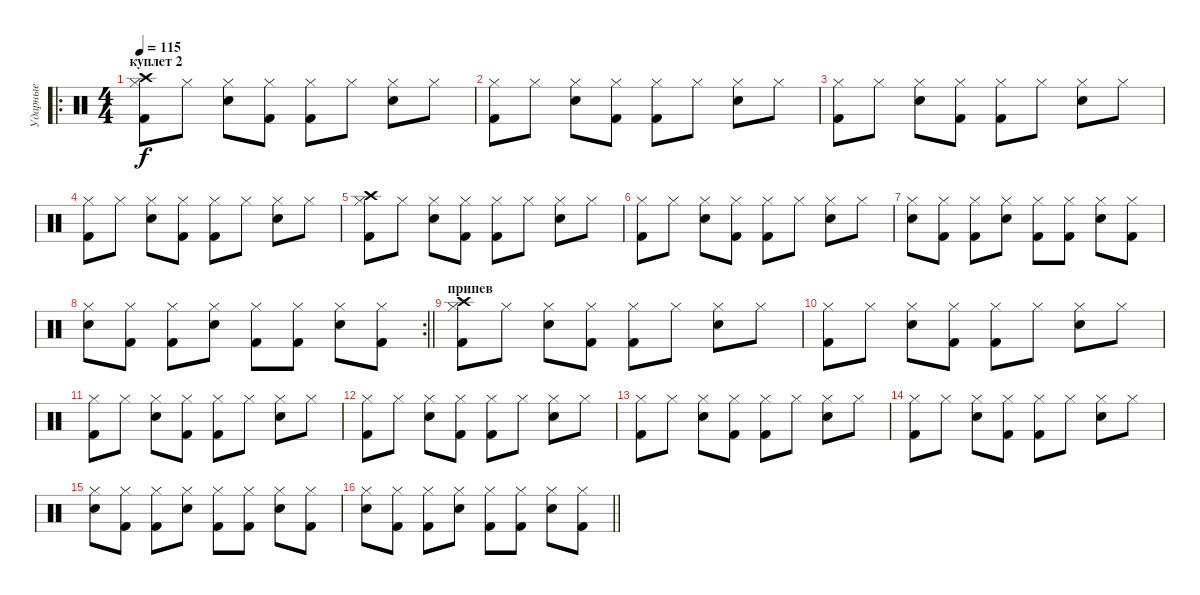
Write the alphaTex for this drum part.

\track ("Ударные" "Ударные") {instrument percussion}
\staff {score}
\articulation defaults
\ro
\ts (4 4)
\section ("" "куплет 2")
\tempo 115
\clef neutral
\ks c
("Hi-Hat (closed)" "Kick (hit) 2" "Crash high (hit)").8{dy f} "Hi-Hat (closed)".8 ("Hi-Hat (closed)" "Snare (hit) 2").8 ("Hi-Hat (closed)" "Kick (hit) 2").8 ("Hi-Hat (closed)" "Kick (hit) 2").8 "Hi-Hat (closed)".8 ("Hi-Hat (closed)" "Snare (hit) 2").8 "Hi-Hat (closed)".8 |
("Hi-Hat (closed)" "Kick (hit) 2").8 "Hi-Hat (closed)".8 ("Hi-Hat (closed)" "Snare (hit) 2").8 ("Hi-Hat (closed)" "Kick (hit) 2").8 ("Hi-Hat (closed)" "Kick (hit) 2").8 "Hi-Hat (closed)".8 ("Hi-Hat (closed)" "Snare (hit) 2").8 "Hi-Hat (closed)".8 |
("Hi-Hat (closed)" "Kick (hit) 2").8 "Hi-Hat (closed)".8 ("Hi-Hat (closed)" "Snare (hit) 2").8 ("Hi-Hat (closed)" "Kick (hit) 2").8 ("Hi-Hat (closed)" "Kick (hit) 2").8 "Hi-Hat (closed)".8 ("Hi-Hat (closed)" "Snare (hit) 2").8 "Hi-Hat (closed)".8 |
("Hi-Hat (closed)" "Kick (hit) 2").8 "Hi-Hat (closed)".8 ("Hi-Hat (closed)" "Snare (hit) 2").8 ("Hi-Hat (closed)" "Kick (hit) 2").8 ("Hi-Hat (closed)" "Kick (hit) 2").8 "Hi-Hat (closed)".8 ("Hi-Hat (closed)" "Snare (hit) 2").8 "Hi-Hat (closed)".8 |
("Hi-Hat (closed)" "Kick (hit) 2" "Crash high (hit)").8 "Hi-Hat (closed)".8 ("Hi-Hat (closed)" "Snare (hit) 2").8 ("Hi-Hat (closed)" "Kick (hit) 2").8 ("Hi-Hat (closed)" "Kick (hit) 2").8 "Hi-Hat (closed)".8 ("Hi-Hat (closed)" "Snare (hit) 2").8 "Hi-Hat (closed)".8 |
("Hi-Hat (closed)" "Kick (hit) 2").8 "Hi-Hat (closed)".8 ("Hi-Hat (closed)" "Snare (hit) 2").8 ("Hi-Hat (closed)" "Kick (hit) 2").8 ("Hi-Hat (closed)" "Kick (hit) 2").8 "Hi-Hat (closed)".8 ("Hi-Hat (closed)" "Snare (hit) 2").8 "Hi-Hat (closed)".8 |
("Hi-Hat (closed)" "Snare (hit) 2").8 ("Hi-Hat (closed)" "Kick (hit) 2").8 ("Hi-Hat (closed)" "Kick (hit) 2").8 ("Hi-Hat (closed)" "Snare (hit) 2").8 ("Hi-Hat (closed)" "Kick (hit) 2").8 ("Hi-Hat (closed)" "Kick (hit) 2").8 ("Hi-Hat (closed)" "Snare (hit) 2").8 ("Hi-Hat (closed)" "Kick (hit) 2").8 |
\rc 2
\barLineRight lightlight
("Hi-Hat (closed)" "Snare (hit) 2").8 ("Hi-Hat (closed)" "Kick (hit) 2").8 ("Hi-Hat (closed)" "Kick (hit) 2").8 ("Hi-Hat (closed)" "Snare (hit) 2").8 ("Hi-Hat (closed)" "Kick (hit) 2").8 ("Hi-Hat (closed)" "Kick (hit) 2").8 ("Hi-Hat (closed)" "Snare (hit) 2").8 ("Hi-Hat (closed)" "Kick (hit) 2").8 |
\section ("" "припев")
("Hi-Hat (closed)" "Kick (hit) 2" "Crash high (hit)").8 "Hi-Hat (closed)".8 ("Hi-Hat (closed)" "Snare (hit) 2").8 ("Hi-Hat (closed)" "Kick (hit) 2").8 ("Hi-Hat (closed)" "Kick (hit) 2").8 "Hi-Hat (closed)".8 ("Hi-Hat (closed)" "Snare (hit) 2").8 "Hi-Hat (closed)".8 |
("Hi-Hat (closed)" "Kick (hit) 2").8 "Hi-Hat (closed)".8 ("Hi-Hat (closed)" "Snare (hit) 2").8 ("Hi-Hat (closed)" "Kick (hit) 2").8 ("Hi-Hat (closed)" "Kick (hit) 2").8 "Hi-Hat (closed)".8 ("Hi-Hat (closed)" "Snare (hit) 2").8 "Hi-Hat (closed)".8 |
("Hi-Hat (closed)" "Kick (hit) 2").8 "Hi-Hat (closed)".8 ("Hi-Hat (closed)" "Snare (hit) 2").8 ("Hi-Hat (closed)" "Kick (hit) 2").8 ("Hi-Hat (closed)" "Kick (hit) 2").8 "Hi-Hat (closed)".8 ("Hi-Hat (closed)" "Snare (hit) 2").8 "Hi-Hat (closed)".8 |
("Hi-Hat (closed)" "Kick (hit) 2").8 "Hi-Hat (closed)".8 ("Hi-Hat (closed)" "Snare (hit) 2").8 ("Hi-Hat (closed)" "Kick (hit) 2").8 ("Hi-Hat (closed)" "Kick (hit) 2").8 "Hi-Hat (closed)".8 ("Hi-Hat (closed)" "Snare (hit) 2").8 "Hi-Hat (closed)".8 |
("Hi-Hat (closed)" "Kick (hit) 2").8 "Hi-Hat (closed)".8 ("Hi-Hat (closed)" "Snare (hit) 2").8 ("Hi-Hat (closed)" "Kick (hit) 2").8 ("Hi-Hat (closed)" "Kick (hit) 2").8 "Hi-Hat (closed)".8 ("Hi-Hat (closed)" "Snare (hit) 2").8 "Hi-Hat (closed)".8 |
("Hi-Hat (closed)" "Kick (hit) 2").8 "Hi-Hat (closed)".8 ("Hi-Hat (closed)" "Snare (hit) 2").8 ("Hi-Hat (closed)" "Kick (hit) 2").8 ("Hi-Hat (closed)" "Kick (hit) 2").8 "Hi-Hat (closed)".8 ("Hi-Hat (closed)" "Snare (hit) 2").8 "Hi-Hat (closed)".8 |
("Hi-Hat (closed)" "Snare (hit) 2").8 ("Hi-Hat (closed)" "Kick (hit) 2").8 ("Hi-Hat (closed)" "Kick (hit) 2").8 ("Hi-Hat (closed)" "Snare (hit) 2").8 ("Hi-Hat (closed)" "Kick (hit) 2").8 ("Hi-Hat (closed)" "Kick (hit) 2").8 ("Hi-Hat (closed)" "Snare (hit) 2").8 ("Hi-Hat (closed)" "Kick (hit) 2").8 |
\barLineRight lightlight
("Hi-Hat (closed)" "Snare (hit) 2").8 ("Hi-Hat (closed)" "Kick (hit) 2").8 ("Hi-Hat (closed)" "Kick (hit) 2").8 ("Hi-Hat (closed)" "Snare (hit) 2").8 ("Hi-Hat (closed)" "Kick (hit) 2").8 ("Hi-Hat (closed)" "Kick (hit) 2").8 ("Hi-Hat (closed)" "Snare (hit) 2").8 ("Hi-Hat (closed)" "Kick (hit) 2").8
